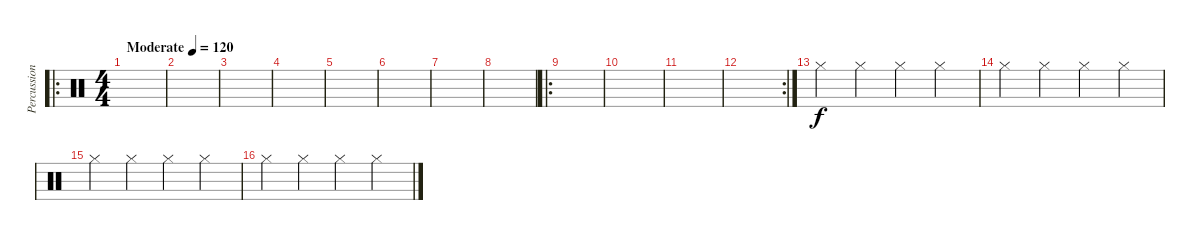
\track ("Percussion" "Percussion") {instrument percussion}
\staff {score}
\articulation defaults
\ro
\ts (4 4)
\tempo (120 "Moderate")
\clef neutral
\ks c
|
|
|
|
|
|
|
|
\ro
|
|
|
\rc 2
|
"Hi-Hat (closed)".4 "Hi-Hat (closed)".4 "Hi-Hat (closed)".4 "Hi-Hat (closed)".4 |
"Hi-Hat (closed)".4 "Hi-Hat (closed)".4 "Hi-Hat (closed)".4 "Hi-Hat (closed)".4 |
"Hi-Hat (closed)".4 "Hi-Hat (closed)".4 "Hi-Hat (closed)".4 "Hi-Hat (closed)".4 |
"Hi-Hat (closed)".4 "Hi-Hat (closed)".4 "Hi-Hat (closed)".4 "Hi-Hat (closed)".4
